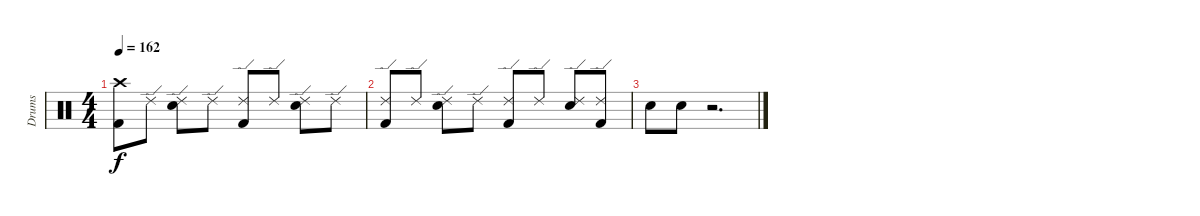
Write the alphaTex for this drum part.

\track ("Drums" "Drums") {instrument percussion}
\staff {score}
\articulation defaults
\ts (4 4)
\tempo 162
\clef neutral
\ks c
("Crash high (hit)" "Kick (hit) 2").8{dy f} "Ride (edge) 2".8 ("Ride (edge) 2" "Snare (hit) 2").8 "Ride (edge) 2".8 ("Ride (edge) 2" "Kick (hit) 2").8 "Ride (edge) 2".8 ("Ride (edge) 2" "Snare (hit) 2").8 "Ride (edge) 2".8 |
("Ride (edge) 2" "Kick (hit) 2").8 "Ride (edge) 2".8 ("Ride (edge) 2" "Snare (hit) 2").8 "Ride (edge) 2".8 ("Ride (edge) 2" "Kick (hit) 2").8 "Ride (edge) 2".8 ("Ride (edge) 2" "Snare (hit) 2").8 ("Ride (edge) 2" "Kick (hit) 2").8 |
"Snare (hit) 2".8 "Snare (hit) 2".8 r.2{d}
